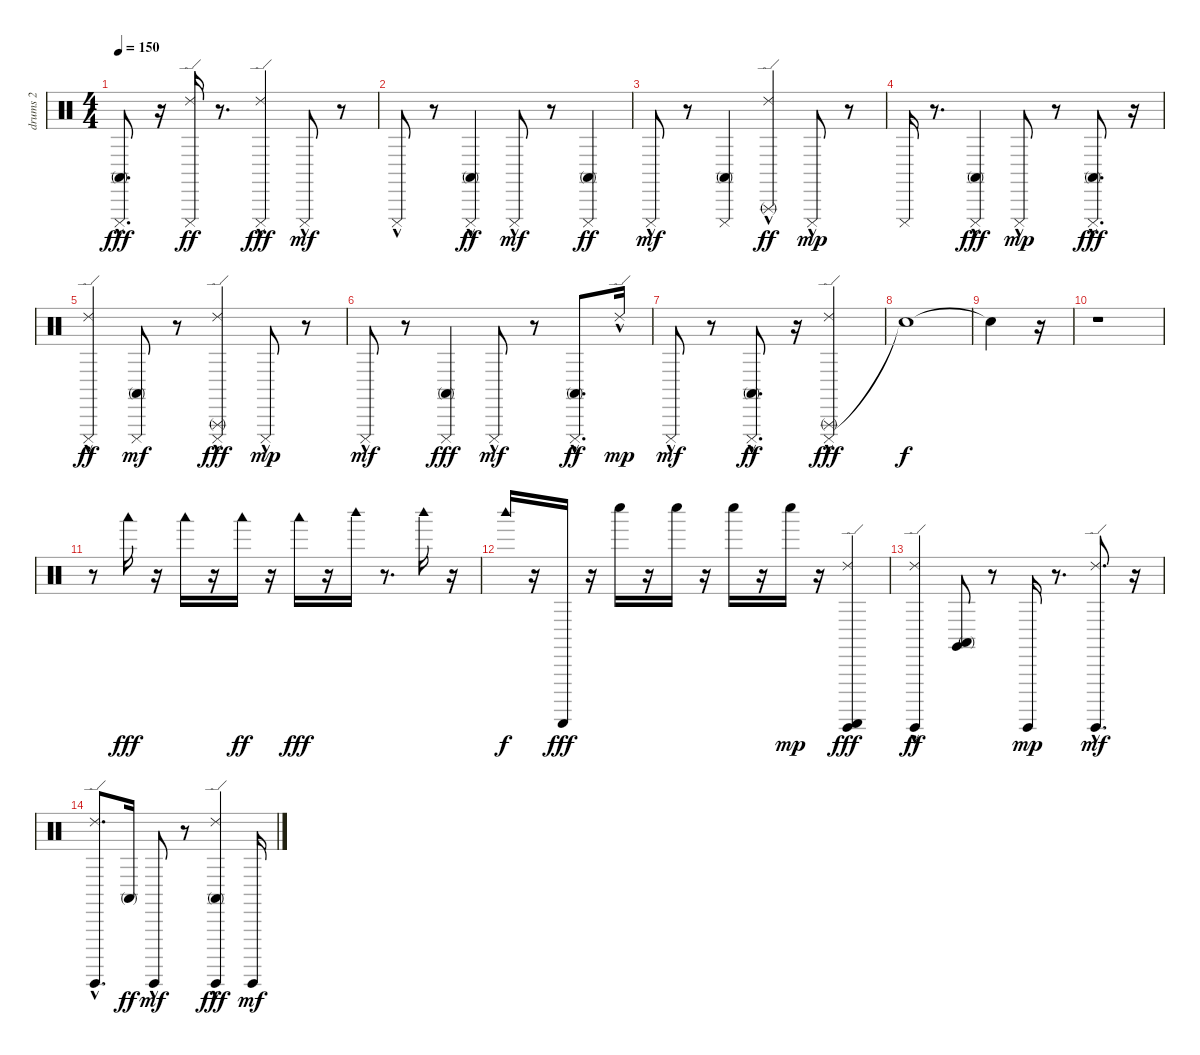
\track ("drums 2" "drums 2") {instrument percussion}
\staff {score}
\articulation defaults
\ts (4 4)
\tempo 150
\clef neutral
\ks c
("Cuica (mute)" "Conga high (mute)"{hac}).8{d dy fff} r.16 ("Cuica (mute)" "Ride (edge) 2").16{dy ff} r.8{d} ("Ride (edge) 2" "Cuica (mute)"{hac}).4{dy fff} "Cuica (mute)"{hac}.8{dy mf} r.8 |
"Cuica (mute)"{hac}.8 r.8 ("Conga high (mute)" "Cuica (mute)"{hac}).4{dy ff} "Cuica (mute)"{hac}.8{dy mf} r.8 ("Cuica (mute)" "Conga high (mute)").4{dy ff} |
"Cuica (mute)"{hac}.8{dy mf} r.8 ("Cuica (mute)" "Conga high (mute)").4 ("Triangle (rnute)"{hac} "Ride (edge) 2").4{dy ff} "Cuica (mute)"{hac}.8{dy mp} r.8 |
"Cuica (mute)".16 r.8{d} ("Conga high (mute)" "Cuica (mute)"{hac}).4{dy fff} "Cuica (mute)"{hac}.8{dy mp} r.8 ("Cuica (mute)"{hac} "Conga high (mute)"{hac}).8{d dy fff} r.16 |
("Cuica (mute)"{hac} "Ride (edge) 2").4{dy ff} ("Conga high (mute)" "Cuica (mute)").8{dy mf} r.8 ("Triangle (rnute)"{hac} "Cuica (mute)"{hac} "Ride (edge) 2").4{dy fff} "Cuica (mute)"{hac}.8{dy mp} r.8 |
"Cuica (mute)"{hac}.8{dy mf} r.8 ("Conga high (mute)" "Cuica (mute)").4{dy fff} "Cuica (mute)"{hac}.8{dy mf} r.8 ("Cuica (mute)" "Conga high (mute)"{hac}).8{d dy ff} "Ride (edge) 2"{hac}.16{dy mp} |
"Cuica (mute)"{hac}.8{dy mf} r.8 ("Cuica (mute)" "Conga high (mute)"{hac}).8{d dy ff} r.16 ("Triangle (rnute)"{hac} "Cuica (mute)"{hac} "Ride (edge) 2").2{dy fff} |
"Snare (hit)"{t}.1{dy f} |
"Snare (hit)"{t}.4 r.16 |
r.1 |
r.8 "Woodblock low (hit)".16{dy fff} r.16 "Woodblock low (hit)".16 r.16 "Woodblock low (hit)".16{dy ff} r.16 "Woodblock low (hit)".16{dy fff} r.16 "Woodblock high (hit)".16 r.8{d} "Woodblock high (hit)".16 r.16 |
"Woodblock high (hit)".16{dy f} r.16 "Guiro (scrap-return)".16{dy fff} r.16 "Whistle low (hit)".16 r.16 "Whistle low (hit)".16 r.16 "Whistle low (hit)".16 r.16 "Whistle low (hit)".16{dy mp} r.16 ("Ride (edge) 2" "Guiro (hit)" "Guiro (scrap-return)").4{dy fff} |
("Guiro (hit)"{hac} "Ride (edge) 2").4{dy ff} ("Conga high (mute)" "Claves (hit)").8 r.8 "Guiro (hit)".16{dy mp} r.8{d} ("Ride (edge) 2" "Guiro (hit)"{hac}).8{d dy mf} r.16 |
("Ride (edge) 2" "Guiro (hit)"{hac}).8{d} "Conga high (mute)".16{dy ff} "Guiro (hit)"{hac}.8{dy mf} r.8 ("Conga high (mute)" "Guiro (hit)"{hac} "Ride (edge) 2").4{dy fff} "Guiro (hit)".16{dy mf}
